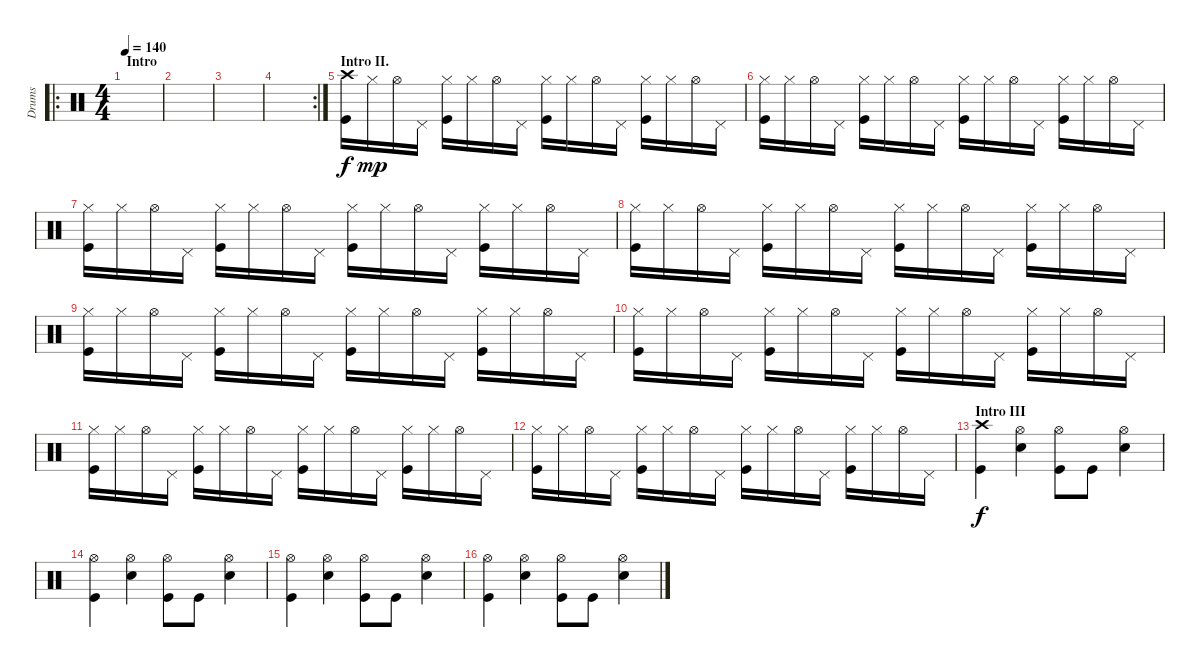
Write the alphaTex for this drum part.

\track ("Drums" "Drums") {instrument percussion}
\staff {score}
\articulation defaults
\ro
\ts (4 4)
\section ("" "Intro")
\tempo 140
\clef neutral
\ks c
|
|
|
\rc 2
|
\section ("" "Intro II.")
("Crash high (hit)" "Kick (hit)").16 "Hi-Hat (closed)".16{dy mp} "Hi-Hat (open)".16 "Pedal Hi-Hat (hit)".16 ("Hi-Hat (closed)" "Kick (hit)").16 "Hi-Hat (closed)".16 "Hi-Hat (open)".16 "Pedal Hi-Hat (hit)".16 ("Hi-Hat (closed)" "Kick (hit)").16 "Hi-Hat (closed)".16 "Hi-Hat (open)".16 "Pedal Hi-Hat (hit)".16 ("Hi-Hat (closed)" "Kick (hit)").16 "Hi-Hat (closed)".16 "Hi-Hat (open)".16 "Pedal Hi-Hat (hit)".16 |
("Hi-Hat (closed)" "Kick (hit)").16 "Hi-Hat (closed)".16 "Hi-Hat (open)".16 "Pedal Hi-Hat (hit)".16 ("Hi-Hat (closed)" "Kick (hit)").16 "Hi-Hat (closed)".16 "Hi-Hat (open)".16 "Pedal Hi-Hat (hit)".16 ("Hi-Hat (closed)" "Kick (hit)").16 "Hi-Hat (closed)".16 "Hi-Hat (open)".16 "Pedal Hi-Hat (hit)".16 ("Hi-Hat (closed)" "Kick (hit)").16 "Hi-Hat (closed)".16 "Hi-Hat (open)".16 "Pedal Hi-Hat (hit)".16 |
("Hi-Hat (closed)" "Kick (hit)").16 "Hi-Hat (closed)".16 "Hi-Hat (open)".16 "Pedal Hi-Hat (hit)".16 ("Hi-Hat (closed)" "Kick (hit)").16 "Hi-Hat (closed)".16 "Hi-Hat (open)".16 "Pedal Hi-Hat (hit)".16 ("Hi-Hat (closed)" "Kick (hit)").16 "Hi-Hat (closed)".16 "Hi-Hat (open)".16 "Pedal Hi-Hat (hit)".16 ("Hi-Hat (closed)" "Kick (hit)").16 "Hi-Hat (closed)".16 "Hi-Hat (open)".16 "Pedal Hi-Hat (hit)".16 |
("Hi-Hat (closed)" "Kick (hit)").16 "Hi-Hat (closed)".16 "Hi-Hat (open)".16 "Pedal Hi-Hat (hit)".16 ("Hi-Hat (closed)" "Kick (hit)").16 "Hi-Hat (closed)".16 "Hi-Hat (open)".16 "Pedal Hi-Hat (hit)".16 ("Hi-Hat (closed)" "Kick (hit)").16 "Hi-Hat (closed)".16 "Hi-Hat (open)".16 "Pedal Hi-Hat (hit)".16 ("Hi-Hat (closed)" "Kick (hit)").16 "Hi-Hat (closed)".16 "Hi-Hat (open)".16 "Pedal Hi-Hat (hit)".16 |
("Hi-Hat (closed)" "Kick (hit)").16 "Hi-Hat (closed)".16 "Hi-Hat (open)".16 "Pedal Hi-Hat (hit)".16 ("Hi-Hat (closed)" "Kick (hit)").16 "Hi-Hat (closed)".16 "Hi-Hat (open)".16 "Pedal Hi-Hat (hit)".16 ("Hi-Hat (closed)" "Kick (hit)").16 "Hi-Hat (closed)".16 "Hi-Hat (open)".16 "Pedal Hi-Hat (hit)".16 ("Hi-Hat (closed)" "Kick (hit)").16 "Hi-Hat (closed)".16 "Hi-Hat (open)".16 "Pedal Hi-Hat (hit)".16 |
("Hi-Hat (closed)" "Kick (hit)").16 "Hi-Hat (closed)".16 "Hi-Hat (open)".16 "Pedal Hi-Hat (hit)".16 ("Hi-Hat (closed)" "Kick (hit)").16 "Hi-Hat (closed)".16 "Hi-Hat (open)".16 "Pedal Hi-Hat (hit)".16 ("Hi-Hat (closed)" "Kick (hit)").16 "Hi-Hat (closed)".16 "Hi-Hat (open)".16 "Pedal Hi-Hat (hit)".16 ("Hi-Hat (closed)" "Kick (hit)").16 "Hi-Hat (closed)".16 "Hi-Hat (open)".16 "Pedal Hi-Hat (hit)".16 |
("Hi-Hat (closed)" "Kick (hit)").16 "Hi-Hat (closed)".16 "Hi-Hat (open)".16 "Pedal Hi-Hat (hit)".16 ("Hi-Hat (closed)" "Kick (hit)").16 "Hi-Hat (closed)".16 "Hi-Hat (open)".16 "Pedal Hi-Hat (hit)".16 ("Hi-Hat (closed)" "Kick (hit)").16 "Hi-Hat (closed)".16 "Hi-Hat (open)".16 "Pedal Hi-Hat (hit)".16 ("Hi-Hat (closed)" "Kick (hit)").16 "Hi-Hat (closed)".16 "Hi-Hat (open)".16 "Pedal Hi-Hat (hit)".16 |
("Hi-Hat (closed)" "Kick (hit)").16 "Hi-Hat (closed)".16 "Hi-Hat (open)".16 "Pedal Hi-Hat (hit)".16 ("Hi-Hat (closed)" "Kick (hit)").16 "Hi-Hat (closed)".16 "Hi-Hat (open)".16 "Pedal Hi-Hat (hit)".16 ("Hi-Hat (closed)" "Kick (hit)").16 "Hi-Hat (closed)".16 "Hi-Hat (open)".16 "Pedal Hi-Hat (hit)".16 ("Hi-Hat (closed)" "Kick (hit)").16 "Hi-Hat (closed)".16 "Hi-Hat (open)".16 "Pedal Hi-Hat (hit)".16 |
\section ("" "Intro III")
("Crash high (hit)" "Kick (hit)").4{dy f} ("Hi-Hat (open)" "Electric Snare (hit)").4 ("Hi-Hat (open)" "Kick (hit)").8 "Kick (hit)".8 ("Hi-Hat (open)" "Electric Snare (hit)").4 |
("Hi-Hat (open)" "Kick (hit)").4 ("Hi-Hat (open)" "Electric Snare (hit)").4 ("Hi-Hat (open)" "Kick (hit)").8 "Kick (hit)".8 ("Hi-Hat (open)" "Electric Snare (hit)").4 |
("Hi-Hat (open)" "Kick (hit)").4 ("Hi-Hat (open)" "Electric Snare (hit)").4 ("Hi-Hat (open)" "Kick (hit)").8 "Kick (hit)".8 ("Hi-Hat (open)" "Electric Snare (hit)").4 |
("Hi-Hat (open)" "Kick (hit)").4 ("Hi-Hat (open)" "Electric Snare (hit)").4 ("Hi-Hat (open)" "Kick (hit)").8 "Kick (hit)".8 ("Hi-Hat (open)" "Electric Snare (hit)").4
